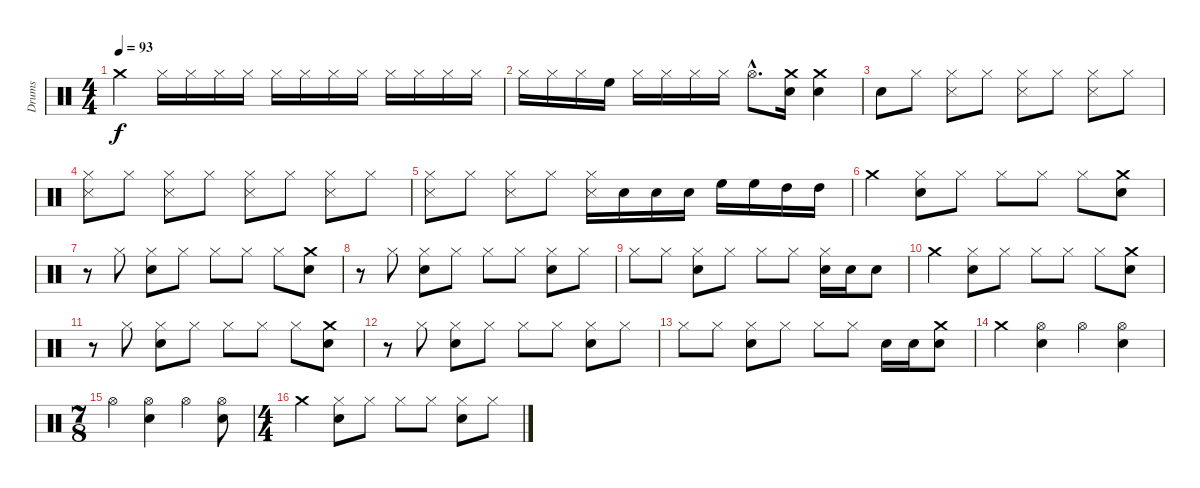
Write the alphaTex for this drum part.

\track ("Drums" "Drums") {instrument percussion}
\staff {score}
\articulation defaults
\ts (4 4)
\tempo 93
\clef neutral
\ks c "Crash medium (hit)".4{dy f} "Hi-Hat (closed)".16 "Hi-Hat (closed)".16 "Hi-Hat (closed)".16 "Hi-Hat (closed)".16 "Hi-Hat (closed)".16 "Hi-Hat (closed)".16 "Hi-Hat (closed)".16 "Hi-Hat (closed)".16 "Hi-Hat (closed)".16 "Hi-Hat (closed)".16 "Hi-Hat (closed)".16 "Hi-Hat (closed)".16
|
"Hi-Hat (closed)".16 "Hi-Hat (closed)".16 "Hi-Hat (closed)".16 "High Floor Tom (hit)".16 "Hi-Hat (closed)".16 "Hi-Hat (closed)".16 "Hi-Hat (closed)".16 "Hi-Hat (closed)".16 "Hi-Hat (open)"{hac}.8{d} ("Crash medium (hit)" "Electric Snare (hit)").16 ("Crash medium (hit)" "Electric Snare (hit)").4 |
"Electric Snare (hit)".8 "Hi-Hat (closed)".8 ("Hi-Hat (closed)" "Snare (side stick) 3").8 "Hi-Hat (closed)".8 ("Hi-Hat (closed)" "Snare (side stick) 3").8 "Hi-Hat (closed)".8 ("Hi-Hat (closed)" "Snare (side stick) 3").8 "Hi-Hat (closed)".8 |
("Hi-Hat (closed)" "Snare (side stick) 3").8 "Hi-Hat (closed)".8 ("Hi-Hat (closed)" "Snare (side stick) 3").8 "Hi-Hat (closed)".8 ("Hi-Hat (closed)" "Snare (side stick) 3").8 "Hi-Hat (closed)".8 ("Hi-Hat (closed)" "Snare (side stick) 3").8 "Hi-Hat (closed)".8 |
("Hi-Hat (closed)" "Snare (side stick) 3").8 "Hi-Hat (closed)".8 ("Hi-Hat (closed)" "Snare (side stick) 3").8 "Hi-Hat (closed)".8 ("Hi-Hat (closed)" "Snare (side stick) 3").16 "Electric Snare (hit)".16 "Electric Snare (hit)".16 "Electric Snare (hit)".16 "High Floor Tom (hit)".16 "High Floor Tom (hit)".16 "High Tom (hit)".16 "High Tom (hit)".16 |
"Crash medium (hit)".4 ("Hi-Hat (closed)" "Electric Snare (hit)").8 "Hi-Hat (closed)".8 "Hi-Hat (closed)".8 "Hi-Hat (closed)".8 "Hi-Hat (closed)".8 ("Crash medium (hit)" "Electric Snare (hit)").8 |
r.8 "Hi-Hat (closed)".8 ("Hi-Hat (closed)" "Electric Snare (hit)").8 "Hi-Hat (closed)".8 "Hi-Hat (closed)".8 "Hi-Hat (closed)".8 "Hi-Hat (closed)".8 ("Electric Snare (hit)" "Crash medium (hit)").8 |
r.8 "Hi-Hat (closed)".8 ("Hi-Hat (closed)" "Electric Snare (hit)").8 "Hi-Hat (closed)".8 "Hi-Hat (closed)".8 "Hi-Hat (closed)".8 ("Hi-Hat (closed)" "Electric Snare (hit)").8 "Hi-Hat (closed)".8 |
"Hi-Hat (closed)".8 "Hi-Hat (closed)".8 ("Hi-Hat (closed)" "Electric Snare (hit)").8 "Hi-Hat (closed)".8 "Hi-Hat (closed)".8 "Hi-Hat (closed)".8 ("Hi-Hat (closed)" "Electric Snare (hit)").16 "Electric Snare (hit)".16 "Electric Snare (hit)".8 |
"Crash medium (hit)".4 ("Hi-Hat (closed)" "Electric Snare (hit)").8 "Hi-Hat (closed)".8 "Hi-Hat (closed)".8 "Hi-Hat (closed)".8 "Hi-Hat (closed)".8 ("Crash medium (hit)" "Electric Snare (hit)").8 |
r.8 "Hi-Hat (closed)".8 ("Hi-Hat (closed)" "Electric Snare (hit)").8 "Hi-Hat (closed)".8 "Hi-Hat (closed)".8 "Hi-Hat (closed)".8 "Hi-Hat (closed)".8 ("Electric Snare (hit)" "Crash medium (hit)").8 |
r.8 "Hi-Hat (closed)".8 ("Hi-Hat (closed)" "Electric Snare (hit)").8 "Hi-Hat (closed)".8 "Hi-Hat (closed)".8 "Hi-Hat (closed)".8 ("Hi-Hat (closed)" "Electric Snare (hit)").8 "Hi-Hat (closed)".8 |
"Hi-Hat (closed)".8 "Hi-Hat (closed)".8 ("Hi-Hat (closed)" "Electric Snare (hit)").8 "Hi-Hat (closed)".8 "Hi-Hat (closed)".8 "Hi-Hat (closed)".8 "Electric Snare (hit)".16 "Electric Snare (hit)".16 ("Electric Snare (hit)" "Crash medium (hit)").8 |
"Crash medium (hit)".4 ("Hi-Hat (open)" "Electric Snare (hit)").4 "Hi-Hat (open)".4 ("Hi-Hat (open)" "Electric Snare (hit)").4 |
\ts (7 8)
"Hi-Hat (open)".4 ("Hi-Hat (open)" "Electric Snare (hit)").4 "Hi-Hat (open)".4 ("Hi-Hat (open)" "Electric Snare (hit)").8 |
\ts (4 4)
"Crash medium (hit)".4 ("Hi-Hat (closed)" "Electric Snare (hit)").8 "Hi-Hat (closed)".8 "Hi-Hat (closed)".8 "Hi-Hat (closed)".8 ("Hi-Hat (closed)" "Electric Snare (hit)").8 "Hi-Hat (closed)".8
